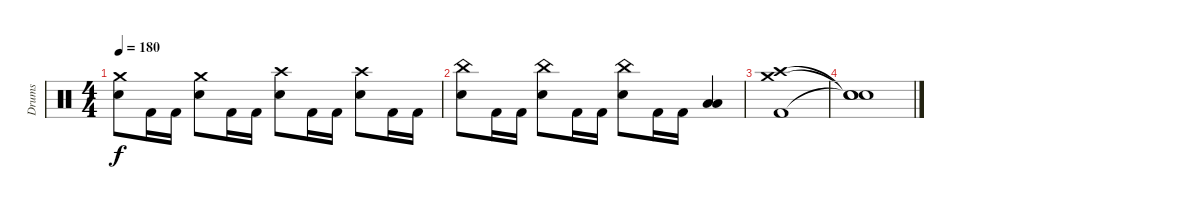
\track ("Drums" "Drums") {instrument percussion}
\staff {score}
\articulation defaults
\ts (4 4)
\tempo 180
\clef neutral
\ks c
("Crash medium (hit)" "Electric Snare (hit)").8{dy f} "Kick (hit) 2".16 "Kick (hit) 2".16 ("Crash medium (hit)" "Electric Snare (hit)").8 "Kick (hit) 2".16 "Kick (hit) 2".16 ("Crash high (hit)" "Electric Snare (hit)").8 "Kick (hit) 2".16 "Kick (hit) 2".16 ("Crash high (hit)" "Electric Snare (hit)").8 "Kick (hit) 2".16 "Kick (hit) 2".16 |
("China (hit)" "Electric Snare (hit)").8 "Kick (hit) 2".16 "Kick (hit) 2".16 ("China (hit)" "Electric Snare (hit)").8 "Kick (hit) 2".16 "Kick (hit) 2".16 ("China (hit)" "Electric Snare (hit)").8 "Kick (hit) 2".16 "Kick (hit) 2".16 ("Low Tom (hit)" "Low Tom (hit)").4 |
("Crash medium (hit)" "Crash high (hit)" "Kick (hit) 2").1 |
("Snare (hit)"{t} "Snare (hit)"{t} "Snare (hit)"{t}).1
